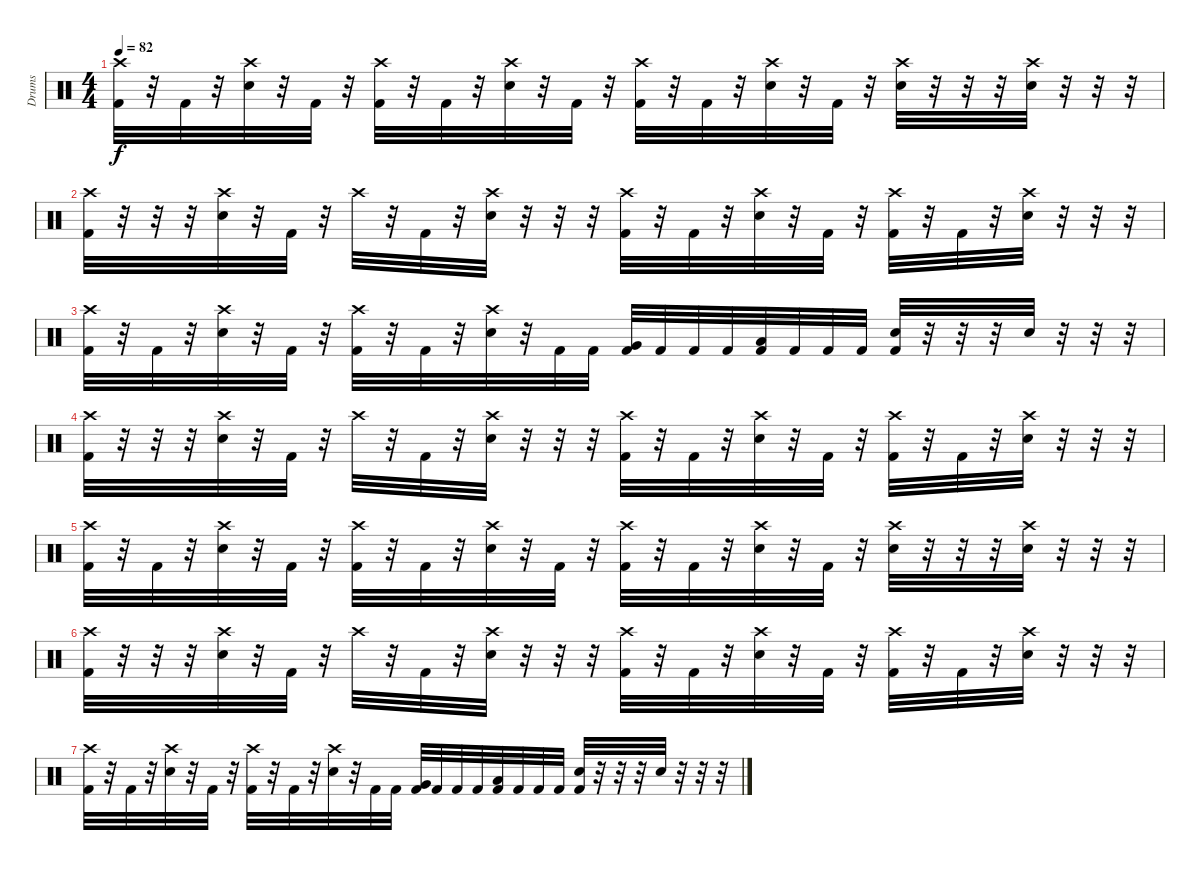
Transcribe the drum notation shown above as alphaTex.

\track ("Drums" "Drums") {instrument percussion}
\staff {score}
\articulation defaults
\ts (4 4)
\tempo 82
\clef neutral
\ks c
("Crash high (hit)" "Kick (hit) 2").32{dy f} r.32 "Kick (hit) 2".32 r.32 ("Crash high (hit)" "Electric Snare (hit)").32 r.32 "Kick (hit) 2".32 r.32 ("Crash high (hit)" "Kick (hit) 2").32 r.32 "Kick (hit) 2".32 r.32 ("Crash high (hit)" "Electric Snare (hit)").32 r.32 "Kick (hit) 2".32 r.32 ("Crash high (hit)" "Kick (hit) 2").32 r.32 "Kick (hit) 2".32 r.32 ("Crash high (hit)" "Electric Snare (hit)").32 r.32 "Kick (hit) 2".32 r.32 ("Crash high (hit)" "Electric Snare (hit)").32 r.32 r.32 r.32 ("Crash high (hit)" "Electric Snare (hit)").32 r.32 r.32 r.32 |
("Crash high (hit)" "Kick (hit) 2").32 r.32 r.32 r.32 ("Crash high (hit)" "Electric Snare (hit)").32 r.32 "Kick (hit) 2".32 r.32 "Crash high (hit)".32 r.32 "Kick (hit) 2".32 r.32 ("Crash high (hit)" "Electric Snare (hit)").32 r.32 r.32 r.32 ("Crash high (hit)" "Kick (hit) 2").32 r.32 "Kick (hit) 2".32 r.32 ("Crash high (hit)" "Electric Snare (hit)").32 r.32 "Kick (hit) 2".32 r.32 ("Crash high (hit)" "Kick (hit) 2").32 r.32 "Kick (hit) 2".32 r.32 ("Crash high (hit)" "Electric Snare (hit)").32 r.32 r.32 r.32 |
("Crash high (hit)" "Kick (hit) 2").32 r.32 "Kick (hit) 2".32 r.32 ("Crash high (hit)" "Electric Snare (hit)").32 r.32 "Kick (hit) 2".32 r.32 ("Crash high (hit)" "Kick (hit) 2").32 r.32 "Kick (hit) 2".32 r.32 ("Crash high (hit)" "Electric Snare (hit)").32 r.32 "Kick (hit) 2".32 "Kick (hit) 2".32 ("Very Low Tom (hit)" "Kick (hit) 2").32 "Kick (hit) 2".32 "Kick (hit) 2".32 "Kick (hit) 2".32 ("Low Tom (hit)" "Kick (hit) 2").32 "Kick (hit) 2".32 "Kick (hit) 2".32 "Kick (hit) 2".32 ("Electric Snare (hit)" "Kick (hit) 2").32 r.32 r.32 r.32 "Electric Snare (hit)".32 r.32 r.32 r.32 |
("Crash high (hit)" "Kick (hit) 2").32 r.32 r.32 r.32 ("Crash high (hit)" "Electric Snare (hit)").32 r.32 "Kick (hit) 2".32 r.32 "Crash high (hit)".32 r.32 "Kick (hit) 2".32 r.32 ("Crash high (hit)" "Electric Snare (hit)").32 r.32 r.32 r.32 ("Crash high (hit)" "Kick (hit) 2").32 r.32 "Kick (hit) 2".32 r.32 ("Crash high (hit)" "Electric Snare (hit)").32 r.32 "Kick (hit) 2".32 r.32 ("Crash high (hit)" "Kick (hit) 2").32 r.32 "Kick (hit) 2".32 r.32 ("Crash high (hit)" "Electric Snare (hit)").32 r.32 r.32 r.32 |
("Crash high (hit)" "Kick (hit) 2").32 r.32 "Kick (hit) 2".32 r.32 ("Crash high (hit)" "Electric Snare (hit)").32 r.32 "Kick (hit) 2".32 r.32 ("Crash high (hit)" "Kick (hit) 2").32 r.32 "Kick (hit) 2".32 r.32 ("Crash high (hit)" "Electric Snare (hit)").32 r.32 "Kick (hit) 2".32 r.32 ("Crash high (hit)" "Kick (hit) 2").32 r.32 "Kick (hit) 2".32 r.32 ("Crash high (hit)" "Electric Snare (hit)").32 r.32 "Kick (hit) 2".32 r.32 ("Crash high (hit)" "Electric Snare (hit)").32 r.32 r.32 r.32 ("Crash high (hit)" "Electric Snare (hit)").32 r.32 r.32 r.32 |
("Crash high (hit)" "Kick (hit) 2").32 r.32 r.32 r.32 ("Crash high (hit)" "Electric Snare (hit)").32 r.32 "Kick (hit) 2".32 r.32 "Crash high (hit)".32 r.32 "Kick (hit) 2".32 r.32 ("Crash high (hit)" "Electric Snare (hit)").32 r.32 r.32 r.32 ("Crash high (hit)" "Kick (hit) 2").32 r.32 "Kick (hit) 2".32 r.32 ("Crash high (hit)" "Electric Snare (hit)").32 r.32 "Kick (hit) 2".32 r.32 ("Crash high (hit)" "Kick (hit) 2").32 r.32 "Kick (hit) 2".32 r.32 ("Crash high (hit)" "Electric Snare (hit)").32 r.32 r.32 r.32 |
("Crash high (hit)" "Kick (hit) 2").32 r.32 "Kick (hit) 2".32 r.32 ("Crash high (hit)" "Electric Snare (hit)").32 r.32 "Kick (hit) 2".32 r.32 ("Crash high (hit)" "Kick (hit) 2").32 r.32 "Kick (hit) 2".32 r.32 ("Crash high (hit)" "Electric Snare (hit)").32 r.32 "Kick (hit) 2".32 "Kick (hit) 2".32 ("Very Low Tom (hit)" "Kick (hit) 2").32 "Kick (hit) 2".32 "Kick (hit) 2".32 "Kick (hit) 2".32 ("Low Tom (hit)" "Kick (hit) 2").32 "Kick (hit) 2".32 "Kick (hit) 2".32 "Kick (hit) 2".32 ("Electric Snare (hit)" "Kick (hit) 2").32 r.32 r.32 r.32 "Electric Snare (hit)".32 r.32 r.32 r.32
